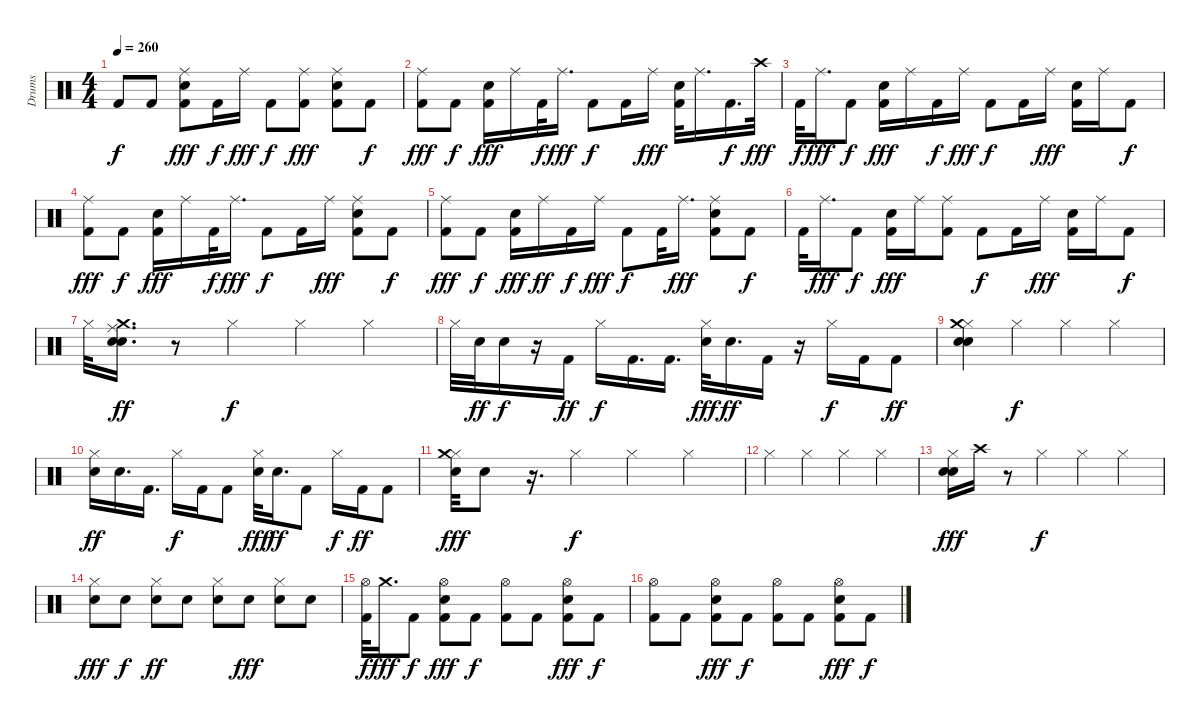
\track ("Drums" "Drums") {instrument percussion}
\staff {score}
\articulation defaults
\ts (4 4)
\tempo 260
\clef neutral
\ks c "Kick (hit) 2".8{dy f} "Kick (hit) 2".8
("Snare (hit) 2" "Kick (hit) 2" "Ride (middle)").8{dy fff} "Kick (hit) 2".16{dy f} "Ride (middle)".16{dy fff} "Kick (hit) 2".8{dy f} ("Kick (hit) 2" "Ride (middle)").8{dy fff} ("Snare (hit) 2" "Kick (hit) 2" "Ride (middle)").8 "Kick (hit) 2".8{dy f} |
("Kick (hit) 2" "Ride (middle)").8{dy fff} "Kick (hit) 2".8{dy f} ("Snare (hit) 2" "Kick (hit) 2").16{dy fff} "Ride (middle)".16 "Kick (hit) 2".32{dy f} "Ride (middle)".16{d dy fff} "Kick (hit) 2".8{dy f} "Kick (hit) 2".16 "Ride (middle)".16{dy fff} ("Snare (hit) 2" "Kick (hit) 2").32 "Ride (middle)".16{d} "Kick (hit) 2".16{d dy f} "Crash high (hit)".32{dy fff} |
"Kick (hit) 2".32{dy f} "Ride (middle)".16{d dy fff} "Kick (hit) 2".8{dy f} ("Snare (hit) 2" "Kick (hit) 2").16{dy fff} "Ride (middle)".16 "Kick (hit) 2".16{dy f} "Ride (middle)".16{dy fff} "Kick (hit) 2".8{dy f} "Kick (hit) 2".16 "Ride (middle)".16{dy fff} ("Snare (hit) 2" "Kick (hit) 2").16 "Ride (middle)".16 "Kick (hit) 2".8{dy f} |
("Kick (hit) 2" "Ride (middle)").8{dy fff} "Kick (hit) 2".8{dy f} ("Snare (hit) 2" "Kick (hit) 2").16{dy fff} "Ride (middle)".16 "Kick (hit) 2".32{dy f} "Ride (middle)".16{d dy fff} "Kick (hit) 2".8{dy f} "Kick (hit) 2".16 "Ride (middle)".16{dy fff} ("Snare (hit) 2" "Kick (hit) 2" "Ride (middle)").8 "Kick (hit) 2".8{dy f} |
("Kick (hit) 2" "Ride (middle)").8{dy fff} "Kick (hit) 2".8{dy f} ("Snare (hit) 2" "Kick (hit) 2").16{dy fff} "Ride (middle)".16{dy ff} "Kick (hit) 2".16{dy f} "Ride (middle)".16{dy fff} "Kick (hit) 2".8{dy f} "Kick (hit) 2".32 "Ride (middle)".16{d dy fff} ("Snare (hit) 2" "Kick (hit) 2" "Ride (middle)").8 "Kick (hit) 2".8{dy f} |
"Kick (hit) 2".32 "Ride (middle)".16{d dy fff} "Kick (hit) 2".8{dy f} ("Snare (hit) 2" "Kick (hit) 2").16{dy fff} "Ride (middle)".16 ("Kick (hit) 2" "Ride (middle)").8 "Kick (hit) 2".8{dy f} "Kick (hit) 2".16 "Ride (middle)".16{dy fff} ("Snare (hit) 2" "Kick (hit) 2").16 "Ride (middle)".16 "Kick (hit) 2".8{dy f} |
"Hi-Hat (closed)".32 ("Ride (middle)" "Crash medium (hit)" "Snare (hit) 2" "Electric Snare (hit)").16{d dy ff} r.8 "Hi-Hat (closed)".4{dy f} "Hi-Hat (closed)".4 "Hi-Hat (closed)".4 |
"Hi-Hat (closed)".32 "Snare (hit) 2".32{dy ff} "Electric Snare (hit)".16{dy f} r.16 "Kick (hit) 2".16{dy ff} "Hi-Hat (closed)".16{dy f} "Kick (hit) 2".16{d} "Kick (hit) 2".16{d} ("Hi-Hat (closed)" "Electric Snare (hit)").32{dy fff} "Snare (hit) 2".16{d dy ff} "Kick (hit) 2".16 r.16 "Hi-Hat (closed)".16{dy f} "Kick (hit) 2".16 "Kick (hit) 2".8{dy ff} |
("Hi-Hat (closed)" "Crash medium (hit)" "Electric Snare (hit)" "Snare (hit) 2").4 "Hi-Hat (closed)".4{dy f} "Hi-Hat (closed)".4 "Hi-Hat (closed)".4 |
("Hi-Hat (closed)" "Electric Snare (hit)").16{dy ff} "Snare (hit) 2".16{d} "Kick (hit) 2".16{d} "Hi-Hat (closed)".16{dy f} "Kick (hit) 2".16 "Kick (hit) 2".8 ("Hi-Hat (closed)" "Electric Snare (hit)").32{dy fff} "Snare (hit) 2".16{d dy ff} "Kick (hit) 2".8 "Hi-Hat (closed)".16{dy f} "Kick (hit) 2".16{dy ff} "Kick (hit) 2".8 |
("Hi-Hat (closed)" "Electric Snare (hit)" "Crash medium (hit)").32{dy fff} "Snare (hit) 2".8 r.16{d} "Hi-Hat (closed)".4{dy f} "Hi-Hat (closed)".4 "Hi-Hat (closed)".4 |
"Hi-Hat (closed)".4 "Hi-Hat (closed)".4 "Hi-Hat (closed)".4 "Hi-Hat (closed)".4 |
("Electric Snare (hit)" "Hi-Hat (closed)" "Snare (hit) 2").16{dy fff} "Crash high (hit)".16 r.8 "Hi-Hat (closed)".4{dy f} "Hi-Hat (closed)".4 "Hi-Hat (closed)".4 |
("Hi-Hat (closed)" "Electric Snare (hit)").8{dy fff} "Electric Snare (hit)".8{dy f} ("Hi-Hat (closed)" "Electric Snare (hit)").8{dy ff} "Electric Snare (hit)".8 ("Hi-Hat (closed)" "Electric Snare (hit)").8 "Electric Snare (hit)".8{dy fff} ("Hi-Hat (closed)" "Electric Snare (hit)").8 "Electric Snare (hit)".8 |
("Hi-Hat (open)" "Kick (hit) 2").32{dy f} "Crash medium (hit)".16{d dy fff} "Kick (hit) 2".8{dy f} ("Hi-Hat (open)" "Snare (hit) 2" "Kick (hit) 2").8{dy fff} "Kick (hit) 2".8{dy f} ("Hi-Hat (open)" "Kick (hit) 2").8 "Kick (hit) 2".8 ("Hi-Hat (open)" "Snare (hit) 2" "Kick (hit) 2").8{dy fff} "Kick (hit) 2".8{dy f} |
("Hi-Hat (open)" "Kick (hit) 2").8 "Kick (hit) 2".8 ("Hi-Hat (open)" "Snare (hit) 2" "Kick (hit) 2").8{dy fff} "Kick (hit) 2".8{dy f} ("Hi-Hat (open)" "Kick (hit) 2").8 "Kick (hit) 2".8 ("Hi-Hat (open)" "Snare (hit) 2" "Kick (hit) 2").8{dy fff} "Kick (hit) 2".8{dy f}
